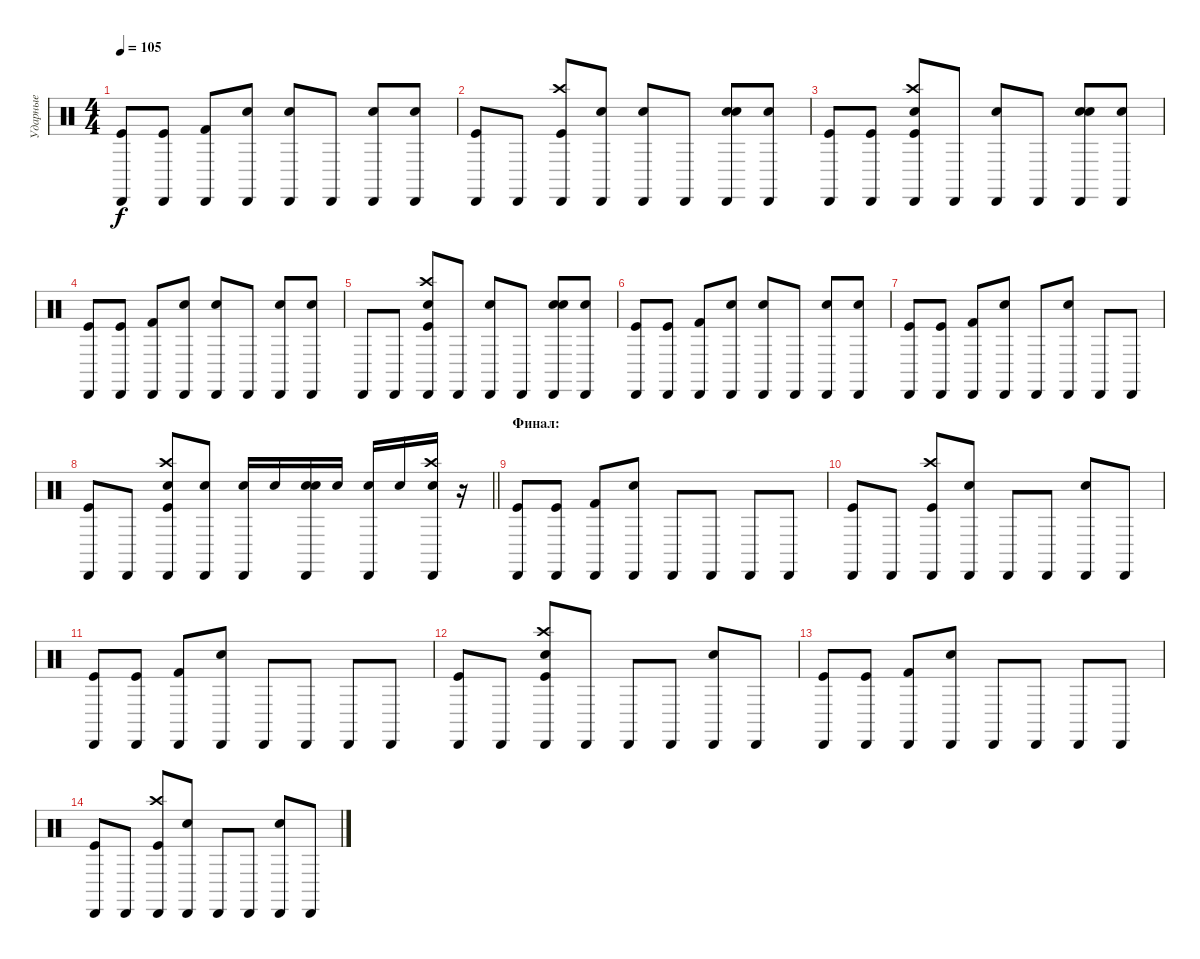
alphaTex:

\track ("Ударные" "Ударные") {instrument percussion}
\staff {score}
\articulation defaults
\ts (4 4)
\tempo 105
\clef neutral
\ks c
("Cabasa (hit)" "Kick (hit)").8{dy f} ("Cabasa (hit)" "Kick (hit)").8 ("Cabasa (hit)" "Kick (hit) 2").8 ("Cabasa (hit)" "Electric Snare (hit)").8 ("Cabasa (hit)" "Snare (hit) 2").8 "Cabasa (hit)".8 ("Cabasa (hit)" "Snare (hit) 2").8 ("Cabasa (hit)" "Snare (hit) 2").8 |
("Cabasa (hit)" "Kick (hit)").8 "Cabasa (hit)".8 ("Cabasa (hit)" "Crash high (hit)" "Kick (hit)").8 ("Cabasa (hit)" "Electric Snare (hit)").8 ("Cabasa (hit)" "Snare (hit) 2").8 "Cabasa (hit)".8 ("Cabasa (hit)" "Snare (hit) 2" "Snare (hit) 2").8 ("Cabasa (hit)" "Snare (hit) 2").8 |
("Cabasa (hit)" "Kick (hit)").8 ("Cabasa (hit)" "Kick (hit)").8 ("Cabasa (hit)" "Crash high (hit)" "Electric Snare (hit)" "Kick (hit)").8 "Cabasa (hit)".8 ("Cabasa (hit)" "Snare (hit) 2").8 "Cabasa (hit)".8 ("Cabasa (hit)" "Snare (hit) 2" "Snare (hit) 2").8 ("Cabasa (hit)" "Snare (hit) 2").8 |
("Cabasa (hit)" "Kick (hit)").8 ("Cabasa (hit)" "Kick (hit)").8 ("Cabasa (hit)" "Kick (hit) 2").8 ("Cabasa (hit)" "Electric Snare (hit)").8 ("Cabasa (hit)" "Snare (hit) 2").8 "Cabasa (hit)".8 ("Cabasa (hit)" "Snare (hit) 2").8 ("Cabasa (hit)" "Snare (hit) 2").8 |
"Cabasa (hit)".8 "Cabasa (hit)".8 ("Cabasa (hit)" "Crash high (hit)" "Electric Snare (hit)" "Kick (hit)").8 "Cabasa (hit)".8 ("Cabasa (hit)" "Snare (hit) 2").8 "Cabasa (hit)".8 ("Cabasa (hit)" "Snare (hit) 2" "Snare (hit) 2").8 ("Cabasa (hit)" "Snare (hit) 2").8 |
("Cabasa (hit)" "Kick (hit)").8 ("Cabasa (hit)" "Kick (hit)").8 ("Cabasa (hit)" "Kick (hit) 2").8 ("Cabasa (hit)" "Electric Snare (hit)").8 ("Cabasa (hit)" "Snare (hit) 2").8 "Cabasa (hit)".8 ("Cabasa (hit)" "Snare (hit) 2").8 ("Cabasa (hit)" "Snare (hit) 2").8 |
("Cabasa (hit)" "Kick (hit)").8 ("Cabasa (hit)" "Kick (hit)").8 ("Cabasa (hit)" "Kick (hit) 2").8 ("Cabasa (hit)" "Electric Snare (hit)").8 "Cabasa (hit)".8 ("Cabasa (hit)" "Snare (hit) 2").8 "Cabasa (hit)".8 "Cabasa (hit)".8 |
\barLineRight lightlight
("Cabasa (hit)" "Kick (hit)").8 "Cabasa (hit)".8 ("Cabasa (hit)" "Crash high (hit)" "Electric Snare (hit)" "Kick (hit)").8 ("Cabasa (hit)" "Snare (hit) 2").8 ("Cabasa (hit)" "Snare (hit) 2").16 "Snare (hit) 2".16 ("Cabasa (hit)" "Snare (hit) 2" "Snare (hit) 2").16 "Snare (hit) 2".16 ("Cabasa (hit)" "Snare (hit) 2").16 "Snare (hit) 2".16 ("Cabasa (hit)" "Snare (hit) 2" "Crash high (hit)").16 r.16 |
\section ("" "Финал:")
("Cabasa (hit)" "Kick (hit)").8 ("Cabasa (hit)" "Kick (hit)").8 ("Cabasa (hit)" "Kick (hit) 2").8 ("Cabasa (hit)" "Electric Snare (hit)").8 "Cabasa (hit)".8 "Cabasa (hit)".8 "Cabasa (hit)".8 "Cabasa (hit)".8 |
("Cabasa (hit)" "Kick (hit)").8 "Cabasa (hit)".8 ("Cabasa (hit)" "Crash high (hit)" "Kick (hit)").8 ("Cabasa (hit)" "Electric Snare (hit)").8 "Cabasa (hit)".8 "Cabasa (hit)".8 ("Cabasa (hit)" "Snare (hit) 2").8 "Cabasa (hit)".8 |
("Cabasa (hit)" "Kick (hit)").8 ("Cabasa (hit)" "Kick (hit)").8 ("Cabasa (hit)" "Kick (hit) 2").8 ("Cabasa (hit)" "Electric Snare (hit)").8 "Cabasa (hit)".8 "Cabasa (hit)".8 "Cabasa (hit)".8 "Cabasa (hit)".8 |
("Cabasa (hit)" "Kick (hit)").8 "Cabasa (hit)".8 ("Cabasa (hit)" "Crash high (hit)" "Electric Snare (hit)" "Kick (hit)").8 "Cabasa (hit)".8 "Cabasa (hit)".8 "Cabasa (hit)".8 ("Cabasa (hit)" "Snare (hit) 2").8 "Cabasa (hit)".8 |
("Cabasa (hit)" "Kick (hit)").8 ("Cabasa (hit)" "Kick (hit)").8 ("Cabasa (hit)" "Kick (hit) 2").8 ("Cabasa (hit)" "Electric Snare (hit)").8 "Cabasa (hit)".8 "Cabasa (hit)".8 "Cabasa (hit)".8 "Cabasa (hit)".8 |
("Cabasa (hit)" "Kick (hit)").8 "Cabasa (hit)".8 ("Cabasa (hit)" "Crash high (hit)" "Kick (hit)").8 ("Cabasa (hit)" "Electric Snare (hit)").8 "Cabasa (hit)".8 "Cabasa (hit)".8 ("Cabasa (hit)" "Snare (hit) 2").8 "Cabasa (hit)".8
